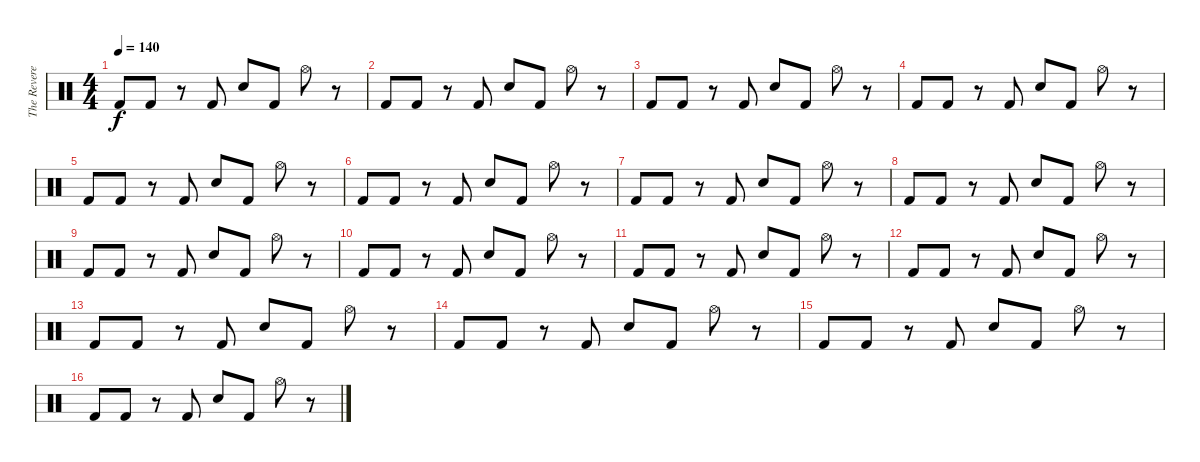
\track ("The Reverend" "The Revere") {instrument percussion}
\staff {score}
\articulation defaults
\ts (4 4)
\tempo 140
\clef neutral
\ks c "Kick (hit) 2".8{dy f volume 16} "Kick (hit) 2".8
r.8 "Kick (hit) 2".8 "Snare (hit) 2".8 "Kick (hit) 2".8 "Hi-Hat (open)".8 r.8 |
"Kick (hit) 2".8 "Kick (hit) 2".8 r.8 "Kick (hit) 2".8 "Snare (hit) 2".8 "Kick (hit) 2".8 "Hi-Hat (open)".8 r.8 |
"Kick (hit) 2".8 "Kick (hit) 2".8 r.8 "Kick (hit) 2".8 "Snare (hit) 2".8 "Kick (hit) 2".8 "Hi-Hat (open)".8 r.8 |
"Kick (hit) 2".8 "Kick (hit) 2".8 r.8 "Kick (hit) 2".8 "Snare (hit) 2".8 "Kick (hit) 2".8 "Hi-Hat (open)".8 r.8 |
"Kick (hit) 2".8 "Kick (hit) 2".8 r.8 "Kick (hit) 2".8 "Snare (hit) 2".8 "Kick (hit) 2".8 "Hi-Hat (open)".8 r.8 |
"Kick (hit) 2".8 "Kick (hit) 2".8 r.8 "Kick (hit) 2".8 "Snare (hit) 2".8 "Kick (hit) 2".8 "Hi-Hat (open)".8 r.8 |
"Kick (hit) 2".8 "Kick (hit) 2".8 r.8 "Kick (hit) 2".8 "Snare (hit) 2".8 "Kick (hit) 2".8 "Hi-Hat (open)".8 r.8 |
"Kick (hit) 2".8 "Kick (hit) 2".8 r.8 "Kick (hit) 2".8 "Snare (hit) 2".8 "Kick (hit) 2".8 "Hi-Hat (open)".8 r.8 |
"Kick (hit) 2".8 "Kick (hit) 2".8 r.8 "Kick (hit) 2".8 "Snare (hit) 2".8 "Kick (hit) 2".8 "Hi-Hat (open)".8 r.8 |
"Kick (hit) 2".8 "Kick (hit) 2".8 r.8 "Kick (hit) 2".8 "Snare (hit) 2".8 "Kick (hit) 2".8 "Hi-Hat (open)".8 r.8 |
"Kick (hit) 2".8 "Kick (hit) 2".8 r.8 "Kick (hit) 2".8 "Snare (hit) 2".8 "Kick (hit) 2".8 "Hi-Hat (open)".8 r.8 |
"Kick (hit) 2".8 "Kick (hit) 2".8 r.8 "Kick (hit) 2".8 "Snare (hit) 2".8 "Kick (hit) 2".8 "Hi-Hat (open)".8 r.8 |
"Kick (hit) 2".8 "Kick (hit) 2".8 r.8 "Kick (hit) 2".8 "Snare (hit) 2".8 "Kick (hit) 2".8 "Hi-Hat (open)".8 r.8 |
"Kick (hit) 2".8 "Kick (hit) 2".8 r.8 "Kick (hit) 2".8 "Snare (hit) 2".8 "Kick (hit) 2".8 "Hi-Hat (open)".8 r.8 |
"Kick (hit) 2".8 "Kick (hit) 2".8 r.8 "Kick (hit) 2".8 "Snare (hit) 2".8 "Kick (hit) 2".8 "Hi-Hat (open)".8 r.8 |
"Kick (hit) 2".8 "Kick (hit) 2".8 r.8 "Kick (hit) 2".8 "Snare (hit) 2".8 "Kick (hit) 2".8 "Hi-Hat (open)".8 r.8
